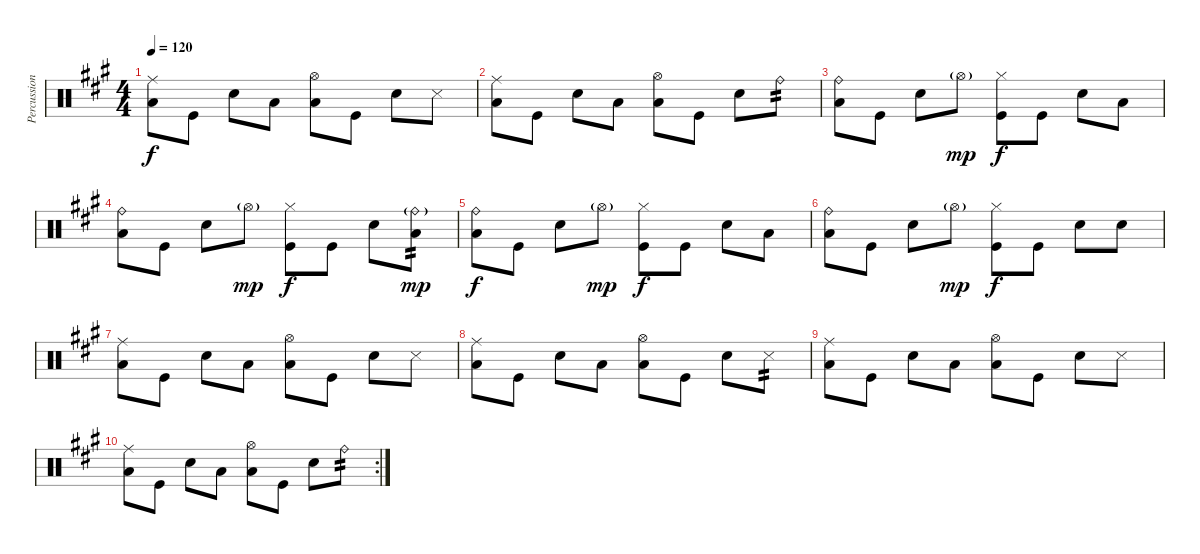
\track ("Percussion" "Percussion") {instrument percussion}
\staff {score}
\articulation defaults
\ts (4 4)
\tempo 120
\clef neutral
\ks a
("Ride (middle)" "Low Floor Tom (hit)").8{dy f} "Kick (hit)".8 "Snare (hit) 2".8 "Low Floor Tom (hit)".8 ("Hi-Hat (open)" "Low Floor Tom (hit)").8 "Kick (hit)".8 "Snare (hit) 2".8 "Snare (side stick) 3".8 |
("Ride (middle)" "Low Floor Tom (hit)").8 "Kick (hit)".8 "Snare (hit) 2".8 "Low Floor Tom (hit)".8 ("Hi-Hat (open)" "Low Floor Tom (hit)").8 "Kick (hit)".8 "Snare (hit) 2".8 "Ride (bell)".8{tp 2} |
("Ride (bell)" "Low Floor Tom (hit)").8 "Kick (hit)".8 "Snare (hit) 2".8 "Hi-Hat (open)"{g}.8{dy mp} ("Hi-Hat (closed)" "Kick (hit)").8{dy f} "Kick (hit)".8 "Snare (hit) 2".8 "Low Floor Tom (hit)".8 |
("Ride (bell)" "Low Floor Tom (hit)").8 "Kick (hit)".8 "Snare (hit) 2".8 "Hi-Hat (open)"{g}.8{dy mp} ("Hi-Hat (closed)" "Kick (hit)").8{dy f} "Kick (hit)".8 "Snare (hit) 2".8 ("Ride (bell)"{g} "Low Floor Tom (hit)").8{tp 2 dy mp} |
("Ride (bell)" "Low Floor Tom (hit)").8{dy f} "Kick (hit)".8 "Snare (hit) 2".8 "Hi-Hat (open)"{g}.8{dy mp} ("Hi-Hat (closed)" "Kick (hit)").8{dy f} "Kick (hit)".8 "Snare (hit) 2".8 "Low Floor Tom (hit)".8 |
("Ride (bell)" "Low Floor Tom (hit)").8 "Kick (hit)".8 "Snare (hit) 2".8 "Hi-Hat (open)"{g}.8{dy mp} ("Hi-Hat (closed)" "Kick (hit)").8{dy f} "Kick (hit)".8 "Snare (hit) 2".8 "Snare (hit) 2".8 |
("Ride (middle)" "Low Floor Tom (hit)").8 "Kick (hit)".8 "Snare (hit) 2".8 "Low Floor Tom (hit)".8 ("Hi-Hat (open)" "Low Floor Tom (hit)").8 "Kick (hit)".8 "Snare (hit) 2".8 "Snare (side stick) 3".8 |
("Ride (middle)" "Low Floor Tom (hit)").8 "Kick (hit)".8 "Snare (hit) 2".8 "Low Floor Tom (hit)".8 ("Hi-Hat (open)" "Low Floor Tom (hit)").8 "Kick (hit)".8 "Snare (hit) 2".8 "Snare (side stick) 3".8{tp 2} |
("Ride (middle)" "Low Floor Tom (hit)").8 "Kick (hit)".8 "Snare (hit) 2".8 "Low Floor Tom (hit)".8 ("Hi-Hat (open)" "Low Floor Tom (hit)").8 "Kick (hit)".8 "Snare (hit) 2".8 "Snare (side stick) 3".8 |
\rc 2
("Ride (middle)" "Low Floor Tom (hit)").8 "Kick (hit)".8 "Snare (hit) 2".8 "Low Floor Tom (hit)".8 ("Hi-Hat (open)" "Low Floor Tom (hit)").8 "Kick (hit)".8 "Snare (hit) 2".8 "Ride (bell)".8{tp 2}
